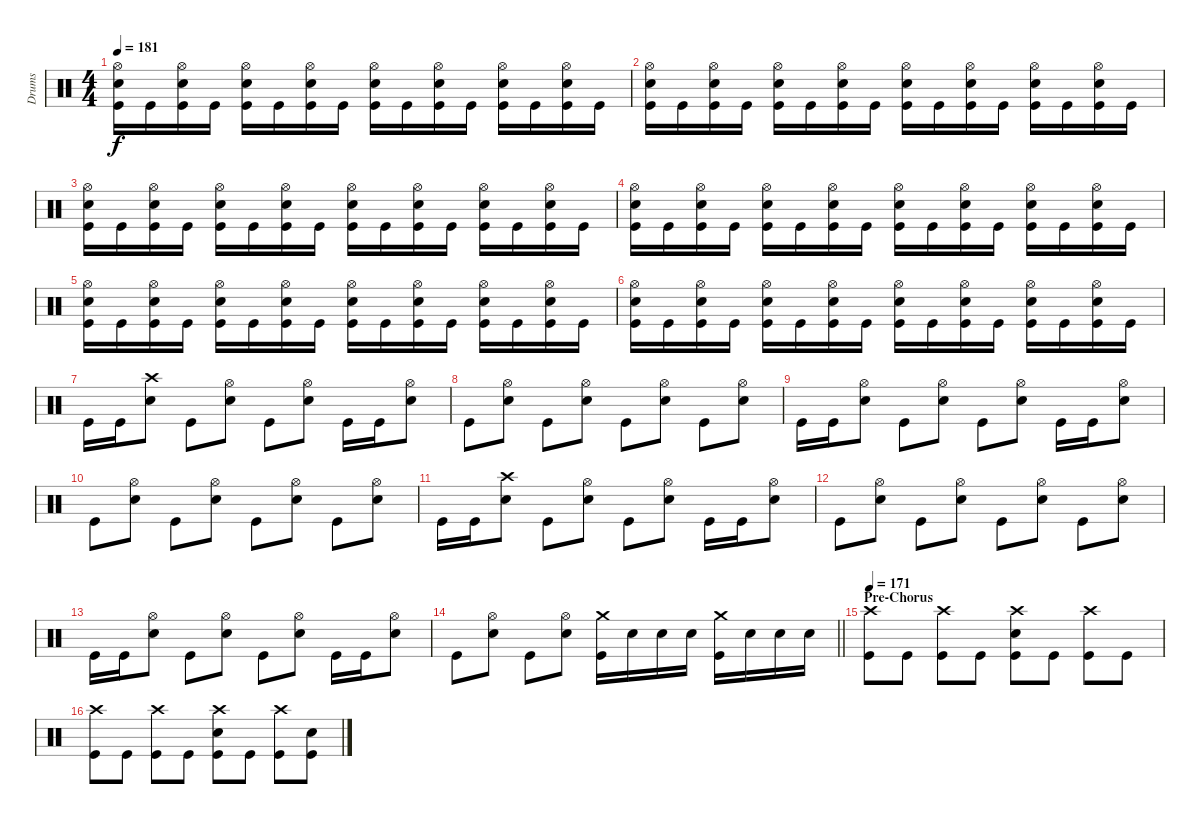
\track ("Drums" "Drums") {instrument percussion}
\staff {score}
\articulation defaults
\ts (4 4)
\tempo 181
\clef neutral
\ks c
("Hi-Hat (open)" "Snare (hit) 2" "Kick (hit)").16{dy f} "Kick (hit)".16 ("Hi-Hat (open)" "Snare (hit) 2" "Kick (hit)").16 "Kick (hit)".16 ("Hi-Hat (open)" "Snare (hit) 2" "Kick (hit)").16 "Kick (hit)".16 ("Hi-Hat (open)" "Snare (hit) 2" "Kick (hit)").16 "Kick (hit)".16 ("Hi-Hat (open)" "Snare (hit) 2" "Kick (hit)").16 "Kick (hit)".16 ("Hi-Hat (open)" "Snare (hit) 2" "Kick (hit)").16 "Kick (hit)".16 ("Hi-Hat (open)" "Snare (hit) 2" "Kick (hit)").16 "Kick (hit)".16 ("Hi-Hat (open)" "Snare (hit) 2" "Kick (hit)").16 "Kick (hit)".16 |
("Hi-Hat (open)" "Snare (hit) 2" "Kick (hit)").16 "Kick (hit)".16 ("Hi-Hat (open)" "Snare (hit) 2" "Kick (hit)").16 "Kick (hit)".16 ("Hi-Hat (open)" "Snare (hit) 2" "Kick (hit)").16 "Kick (hit)".16 ("Hi-Hat (open)" "Snare (hit) 2" "Kick (hit)").16 "Kick (hit)".16 ("Hi-Hat (open)" "Snare (hit) 2" "Kick (hit)").16 "Kick (hit)".16 ("Hi-Hat (open)" "Snare (hit) 2" "Kick (hit)").16 "Kick (hit)".16 ("Hi-Hat (open)" "Snare (hit) 2" "Kick (hit)").16 "Kick (hit)".16 ("Hi-Hat (open)" "Snare (hit) 2" "Kick (hit)").16 "Kick (hit)".16 |
("Hi-Hat (open)" "Snare (hit) 2" "Kick (hit)").16 "Kick (hit)".16 ("Hi-Hat (open)" "Snare (hit) 2" "Kick (hit)").16 "Kick (hit)".16 ("Hi-Hat (open)" "Snare (hit) 2" "Kick (hit)").16 "Kick (hit)".16 ("Hi-Hat (open)" "Snare (hit) 2" "Kick (hit)").16 "Kick (hit)".16 ("Hi-Hat (open)" "Snare (hit) 2" "Kick (hit)").16 "Kick (hit)".16 ("Hi-Hat (open)" "Snare (hit) 2" "Kick (hit)").16 "Kick (hit)".16 ("Hi-Hat (open)" "Snare (hit) 2" "Kick (hit)").16 "Kick (hit)".16 ("Hi-Hat (open)" "Snare (hit) 2" "Kick (hit)").16 "Kick (hit)".16 |
("Hi-Hat (open)" "Snare (hit) 2" "Kick (hit)").16 "Kick (hit)".16 ("Hi-Hat (open)" "Snare (hit) 2" "Kick (hit)").16 "Kick (hit)".16 ("Hi-Hat (open)" "Snare (hit) 2" "Kick (hit)").16 "Kick (hit)".16 ("Hi-Hat (open)" "Snare (hit) 2" "Kick (hit)").16 "Kick (hit)".16 ("Hi-Hat (open)" "Snare (hit) 2" "Kick (hit)").16 "Kick (hit)".16 ("Hi-Hat (open)" "Snare (hit) 2" "Kick (hit)").16 "Kick (hit)".16 ("Hi-Hat (open)" "Snare (hit) 2" "Kick (hit)").16 "Kick (hit)".16 ("Hi-Hat (open)" "Snare (hit) 2" "Kick (hit)").16 "Kick (hit)".16 |
("Hi-Hat (open)" "Snare (hit) 2" "Kick (hit)").16 "Kick (hit)".16 ("Hi-Hat (open)" "Snare (hit) 2" "Kick (hit)").16 "Kick (hit)".16 ("Hi-Hat (open)" "Snare (hit) 2" "Kick (hit)").16 "Kick (hit)".16 ("Hi-Hat (open)" "Snare (hit) 2" "Kick (hit)").16 "Kick (hit)".16 ("Hi-Hat (open)" "Snare (hit) 2" "Kick (hit)").16 "Kick (hit)".16 ("Hi-Hat (open)" "Snare (hit) 2" "Kick (hit)").16 "Kick (hit)".16 ("Hi-Hat (open)" "Snare (hit) 2" "Kick (hit)").16 "Kick (hit)".16 ("Hi-Hat (open)" "Snare (hit) 2" "Kick (hit)").16 "Kick (hit)".16 |
("Hi-Hat (open)" "Snare (hit) 2" "Kick (hit)").16 "Kick (hit)".16 ("Hi-Hat (open)" "Snare (hit) 2" "Kick (hit)").16 "Kick (hit)".16 ("Hi-Hat (open)" "Snare (hit) 2" "Kick (hit)").16 "Kick (hit)".16 ("Hi-Hat (open)" "Snare (hit) 2" "Kick (hit)").16 "Kick (hit)".16 ("Hi-Hat (open)" "Snare (hit) 2" "Kick (hit)").16 "Kick (hit)".16 ("Hi-Hat (open)" "Snare (hit) 2" "Kick (hit)").16 "Kick (hit)".16 ("Hi-Hat (open)" "Snare (hit) 2" "Kick (hit)").16 "Kick (hit)".16 ("Hi-Hat (open)" "Snare (hit) 2" "Kick (hit)").16 "Kick (hit)".16 |
"Kick (hit)".16 "Kick (hit)".16 ("Crash high (hit)" "Snare (hit) 2").8 "Kick (hit)".8 ("Hi-Hat (open)" "Snare (hit) 2").8 "Kick (hit)".8 ("Hi-Hat (open)" "Snare (hit) 2").8 "Kick (hit)".16 "Kick (hit)".16 ("Hi-Hat (open)" "Snare (hit) 2").8 |
"Kick (hit)".8 ("Hi-Hat (open)" "Snare (hit) 2").8 "Kick (hit)".8 ("Hi-Hat (open)" "Snare (hit) 2").8 "Kick (hit)".8 ("Hi-Hat (open)" "Snare (hit) 2").8 "Kick (hit)".8 ("Hi-Hat (open)" "Snare (hit) 2").8 |
"Kick (hit)".16 "Kick (hit)".16 ("Hi-Hat (open)" "Snare (hit) 2").8 "Kick (hit)".8 ("Hi-Hat (open)" "Snare (hit) 2").8 "Kick (hit)".8 ("Hi-Hat (open)" "Snare (hit) 2").8 "Kick (hit)".16 "Kick (hit)".16 ("Hi-Hat (open)" "Snare (hit) 2").8 |
"Kick (hit)".8 ("Hi-Hat (open)" "Snare (hit) 2").8 "Kick (hit)".8 ("Hi-Hat (open)" "Snare (hit) 2").8 "Kick (hit)".8 ("Hi-Hat (open)" "Snare (hit) 2").8 "Kick (hit)".8 ("Hi-Hat (open)" "Snare (hit) 2").8 |
"Kick (hit)".16 "Kick (hit)".16 ("Crash high (hit)" "Snare (hit) 2").8 "Kick (hit)".8 ("Hi-Hat (open)" "Snare (hit) 2").8 "Kick (hit)".8 ("Hi-Hat (open)" "Snare (hit) 2").8 "Kick (hit)".16 "Kick (hit)".16 ("Hi-Hat (open)" "Snare (hit) 2").8 |
"Kick (hit)".8 ("Hi-Hat (open)" "Snare (hit) 2").8 "Kick (hit)".8 ("Hi-Hat (open)" "Snare (hit) 2").8 "Kick (hit)".8 ("Hi-Hat (open)" "Snare (hit) 2").8 "Kick (hit)".8 ("Hi-Hat (open)" "Snare (hit) 2").8 |
"Kick (hit)".16 "Kick (hit)".16 ("Hi-Hat (open)" "Snare (hit) 2").8 "Kick (hit)".8 ("Hi-Hat (open)" "Snare (hit) 2").8 "Kick (hit)".8 ("Hi-Hat (open)" "Snare (hit) 2").8 "Kick (hit)".16 "Kick (hit)".16 ("Hi-Hat (open)" "Snare (hit) 2").8 |
\barLineRight lightlight "Kick (hit)".8
("Hi-Hat (open)" "Snare (hit) 2").8 "Kick (hit)".8 ("Hi-Hat (open)" "Snare (hit) 2").8 ("Crash medium (hit)" "Kick (hit)").16 "Snare (hit) 2".16 "Snare (hit) 2".16 "Snare (hit) 2".16 ("Crash medium (hit)" "Kick (hit)").16 "Snare (hit) 2".16 "Snare (hit) 2".16 "Snare (hit) 2".16 |
\section ("" "Pre-Chorus")
\tempo 171
("Crash high (hit)" "Kick (hit)").8 "Kick (hit)".8 ("Crash high (hit)" "Kick (hit)").8 "Kick (hit)".8 ("Crash high (hit)" "Snare (hit) 2" "Kick (hit)").8 "Kick (hit)".8 ("Crash high (hit)" "Kick (hit)").8 "Kick (hit)".8 |
("Crash high (hit)" "Kick (hit)").8 "Kick (hit)".8 ("Crash high (hit)" "Kick (hit)").8 "Kick (hit)".8 ("Crash high (hit)" "Snare (hit) 2" "Kick (hit)").8 "Kick (hit)".8 ("Crash high (hit)" "Kick (hit)").8 ("Snare (hit) 2" "Kick (hit)").8
